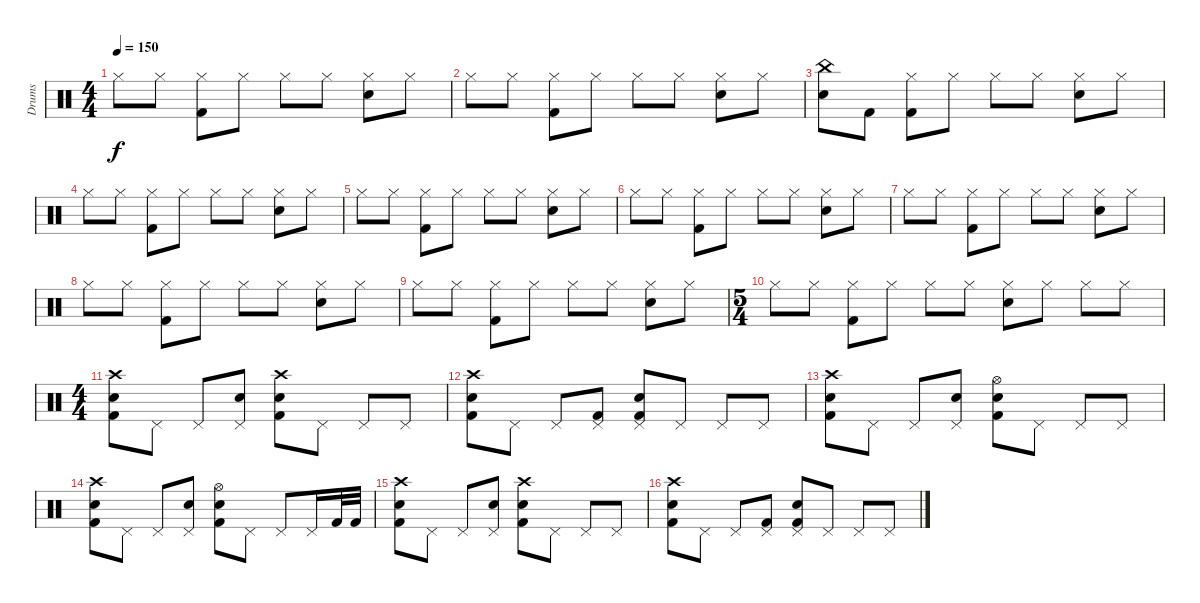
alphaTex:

\track ("Drums" "Drums") {instrument percussion}
\staff {score}
\articulation defaults
\ts (4 4)
\tempo 150
\clef neutral
\ks c "Hi-Hat (closed)".8{dy f} "Hi-Hat (closed)".8
("Kick (hit) 2" "Hi-Hat (closed)").8 "Hi-Hat (closed)".8 "Hi-Hat (closed)".8 "Hi-Hat (closed)".8 ("Snare (hit) 2" "Hi-Hat (closed)").8 "Hi-Hat (closed)".8 |
"Hi-Hat (closed)".8 "Hi-Hat (closed)".8 ("Kick (hit) 2" "Hi-Hat (closed)").8 "Hi-Hat (closed)".8 "Hi-Hat (closed)".8 "Hi-Hat (closed)".8 ("Snare (hit) 2" "Hi-Hat (closed)").8 "Hi-Hat (closed)".8 |
("China (hit)" "Snare (hit) 2").8 "Kick (hit) 2".8 ("Kick (hit) 2" "Hi-Hat (closed)").8 "Hi-Hat (closed)".8 "Hi-Hat (closed)".8 "Hi-Hat (closed)".8 ("Snare (hit) 2" "Hi-Hat (closed)").8 "Hi-Hat (closed)".8 |
"Hi-Hat (closed)".8 "Hi-Hat (closed)".8 ("Kick (hit) 2" "Hi-Hat (closed)").8 "Hi-Hat (closed)".8 "Hi-Hat (closed)".8 "Hi-Hat (closed)".8 ("Snare (hit) 2" "Hi-Hat (closed)").8 "Hi-Hat (closed)".8 |
"Hi-Hat (closed)".8 "Hi-Hat (closed)".8 ("Kick (hit) 2" "Hi-Hat (closed)").8 "Hi-Hat (closed)".8 "Hi-Hat (closed)".8 "Hi-Hat (closed)".8 ("Snare (hit) 2" "Hi-Hat (closed)").8 "Hi-Hat (closed)".8 |
"Hi-Hat (closed)".8 "Hi-Hat (closed)".8 ("Kick (hit) 2" "Hi-Hat (closed)").8 "Hi-Hat (closed)".8 "Hi-Hat (closed)".8 "Hi-Hat (closed)".8 ("Snare (hit) 2" "Hi-Hat (closed)").8 "Hi-Hat (closed)".8 |
"Hi-Hat (closed)".8 "Hi-Hat (closed)".8 ("Kick (hit) 2" "Hi-Hat (closed)").8 "Hi-Hat (closed)".8 "Hi-Hat (closed)".8 "Hi-Hat (closed)".8 ("Snare (hit) 2" "Hi-Hat (closed)").8 "Hi-Hat (closed)".8 |
"Hi-Hat (closed)".8 "Hi-Hat (closed)".8 ("Kick (hit) 2" "Hi-Hat (closed)").8 "Hi-Hat (closed)".8 "Hi-Hat (closed)".8 "Hi-Hat (closed)".8 ("Snare (hit) 2" "Hi-Hat (closed)").8 "Hi-Hat (closed)".8 |
"Hi-Hat (closed)".8 "Hi-Hat (closed)".8 ("Kick (hit) 2" "Hi-Hat (closed)").8 "Hi-Hat (closed)".8 "Hi-Hat (closed)".8 "Hi-Hat (closed)".8 ("Snare (hit) 2" "Hi-Hat (closed)").8 "Hi-Hat (closed)".8 |
\ts (5 4)
"Hi-Hat (closed)".8 "Hi-Hat (closed)".8 ("Kick (hit) 2" "Hi-Hat (closed)").8 "Hi-Hat (closed)".8 "Hi-Hat (closed)".8 "Hi-Hat (closed)".8 ("Snare (hit) 2" "Hi-Hat (closed)").8 "Hi-Hat (closed)".8 "Hi-Hat (closed)".8 "Hi-Hat (closed)".8 |
\ts (4 4)
("Snare (hit) 2" "Crash high (hit)" "Kick (hit) 2").8 "Pedal Hi-Hat (hit)".8 "Pedal Hi-Hat (hit)".8 ("Pedal Hi-Hat (hit)" "Snare (hit) 2").8 ("Snare (hit) 2" "Crash high (hit)" "Kick (hit) 2").8 "Pedal Hi-Hat (hit)".8 "Pedal Hi-Hat (hit)".8 "Pedal Hi-Hat (hit)".8 |
("Snare (hit) 2" "Crash high (hit)" "Kick (hit) 2").8 "Pedal Hi-Hat (hit)".8 "Pedal Hi-Hat (hit)".8 ("Pedal Hi-Hat (hit)" "Kick (hit) 2").8 ("Snare (hit) 2" "Pedal Hi-Hat (hit)" "Kick (hit) 2").8 "Pedal Hi-Hat (hit)".8 "Pedal Hi-Hat (hit)".8 "Pedal Hi-Hat (hit)".8 |
("Snare (hit) 2" "Crash high (hit)" "Kick (hit) 2").8 "Pedal Hi-Hat (hit)".8 "Pedal Hi-Hat (hit)".8 ("Pedal Hi-Hat (hit)" "Snare (hit) 2").8 ("Snare (hit) 2" "Hi-Hat (open)" "Kick (hit) 2").8 "Pedal Hi-Hat (hit)".8 "Pedal Hi-Hat (hit)".8 "Pedal Hi-Hat (hit)".8 |
("Snare (hit) 2" "Crash high (hit)" "Kick (hit) 2").8 "Pedal Hi-Hat (hit)".8 "Pedal Hi-Hat (hit)".8 ("Pedal Hi-Hat (hit)" "Snare (hit) 2").8 ("Snare (hit) 2" "Hi-Hat (open)" "Kick (hit) 2").8 "Pedal Hi-Hat (hit)".8 "Pedal Hi-Hat (hit)".8 "Pedal Hi-Hat (hit)".16 "Kick (hit) 2".32 "Kick (hit) 2".32 |
("Snare (hit) 2" "Crash high (hit)" "Kick (hit) 2").8 "Pedal Hi-Hat (hit)".8 "Pedal Hi-Hat (hit)".8 ("Pedal Hi-Hat (hit)" "Snare (hit) 2").8 ("Snare (hit) 2" "Crash high (hit)" "Kick (hit) 2").8 "Pedal Hi-Hat (hit)".8 "Pedal Hi-Hat (hit)".8 "Pedal Hi-Hat (hit)".8 |
("Snare (hit) 2" "Crash high (hit)" "Kick (hit) 2").8 "Pedal Hi-Hat (hit)".8 "Pedal Hi-Hat (hit)".8 ("Pedal Hi-Hat (hit)" "Kick (hit) 2").8 ("Snare (hit) 2" "Pedal Hi-Hat (hit)" "Kick (hit) 2").8 "Pedal Hi-Hat (hit)".8 "Pedal Hi-Hat (hit)".8 "Pedal Hi-Hat (hit)".8
